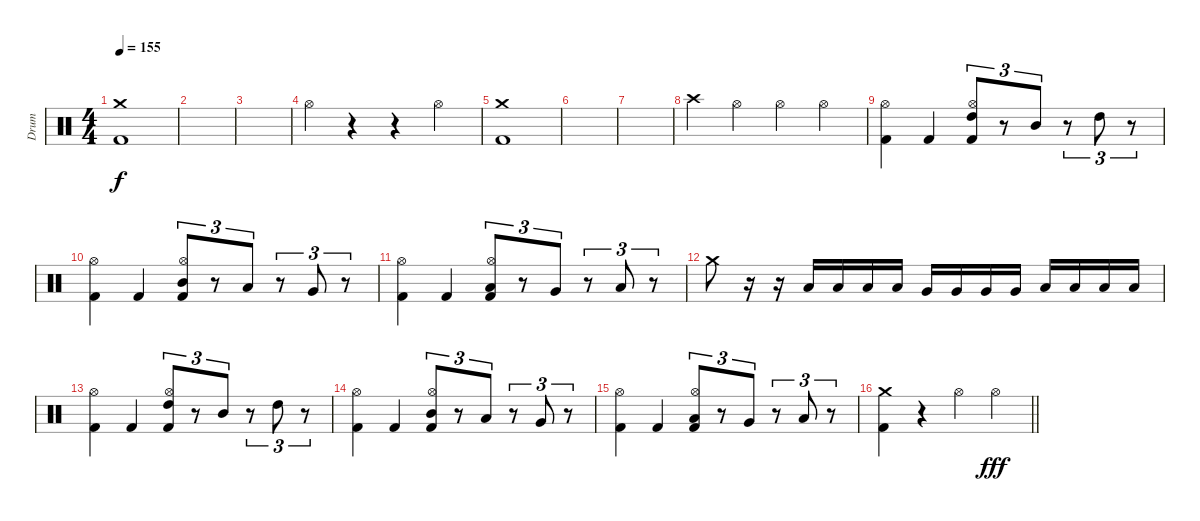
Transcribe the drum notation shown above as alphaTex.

\track ("Drum" "Drum") {instrument percussion}
\staff {score}
\articulation defaults
\ts (4 4)
\tempo 155
\clef neutral
\ks c
("Crash medium (hit)" "Kick (hit) 2").1{dy f} |
|
|
"Hi-Hat (open)".4 r.4 r.4 "Hi-Hat (open)".4 |
("Crash medium (hit)" "Kick (hit) 2").1 |
|
|
"Crash high (hit)".4 "Hi-Hat (open)".4 "Hi-Hat (open)".4 "Hi-Hat (open)".4 |
("Hi-Hat (open)" "Kick (hit) 2").4 "Kick (hit) 2".4 ("Hi-Hat (open)" "High Tom (hit)" "Kick (hit) 2").8{tu (3 2)} r.8{tu (3 2)} "Mid Tom (hit)".8{tu (3 2)} r.8{tu (3 2)} "High Tom (hit)".8{tu (3 2)} r.8{tu (3 2)} |
("Hi-Hat (open)" "Kick (hit) 2").4 "Kick (hit) 2".4 ("Hi-Hat (open)" "Mid Tom (hit)" "Kick (hit) 2").8{tu (3 2)} r.8{tu (3 2)} "Low Tom (hit)".8{tu (3 2)} r.8{tu (3 2)} "Very Low Tom (hit)".8{tu (3 2)} r.8{tu (3 2)} |
("Hi-Hat (open)" "Kick (hit) 2").4 "Kick (hit) 2".4 ("Hi-Hat (open)" "Low Tom (hit)" "Kick (hit) 2").8{tu (3 2)} r.8{tu (3 2)} "Very Low Tom (hit)".8{tu (3 2)} r.8{tu (3 2)} "Low Floor Tom (hit)".8{tu (3 2)} r.8{tu (3 2)} |
"Crash medium (hit)".8 r.16 r.16 "Low Floor Tom (hit)".16 "Low Floor Tom (hit)".16 "Low Floor Tom (hit)".16 "Low Floor Tom (hit)".16 "Very Low Tom (hit)".16 "Very Low Tom (hit)".16 "Very Low Tom (hit)".16 "Very Low Tom (hit)".16 "Low Tom (hit)".16 "Low Tom (hit)".16 "Low Tom (hit)".16 "Low Tom (hit)".16 |
("Hi-Hat (open)" "Kick (hit) 2").4 "Kick (hit) 2".4 ("Hi-Hat (open)" "High Tom (hit)" "Kick (hit) 2").8{tu (3 2)} r.8{tu (3 2)} "Mid Tom (hit)".8{tu (3 2)} r.8{tu (3 2)} "High Tom (hit)".8{tu (3 2)} r.8{tu (3 2)} |
("Hi-Hat (open)" "Kick (hit) 2").4 "Kick (hit) 2".4 ("Hi-Hat (open)" "Mid Tom (hit)" "Kick (hit) 2").8{tu (3 2)} r.8{tu (3 2)} "Low Tom (hit)".8{tu (3 2)} r.8{tu (3 2)} "Very Low Tom (hit)".8{tu (3 2)} r.8{tu (3 2)} |
("Hi-Hat (open)" "Kick (hit) 2").4 "Kick (hit) 2".4 ("Hi-Hat (open)" "Low Tom (hit)" "Kick (hit) 2").8{tu (3 2)} r.8{tu (3 2)} "Very Low Tom (hit)".8{tu (3 2)} r.8{tu (3 2)} "Low Floor Tom (hit)".8{tu (3 2)} r.8{tu (3 2)} |
\barLineRight lightlight
("Crash medium (hit)" "Kick (hit) 2").4 r.4 "Hi-Hat (open)".4 "Hi-Hat (open)".4{dy fff}
